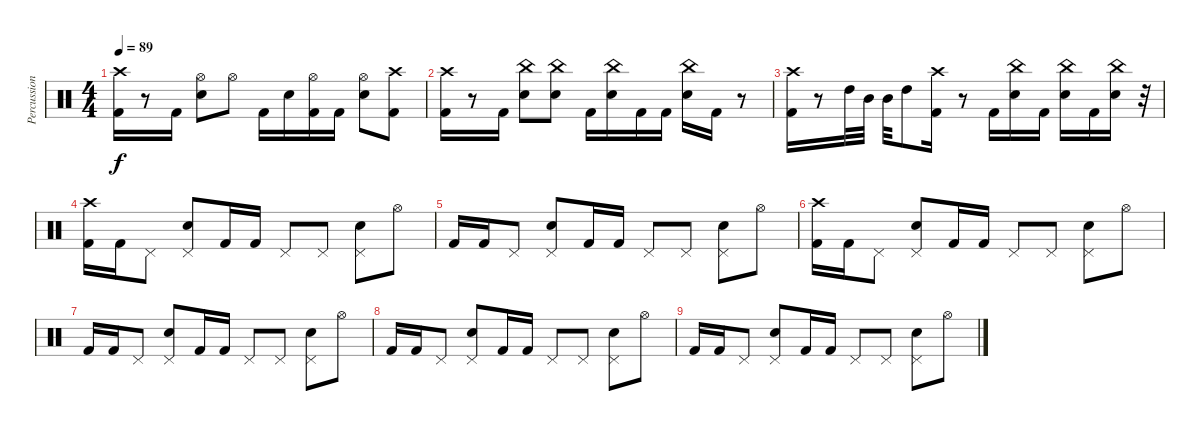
\track ("Percussion" "Percussion") {instrument percussion}
\staff {score}
\articulation defaults
\ts (4 4)
\tempo 89
\clef neutral
\ks c
("Crash high (hit)" "Kick (hit) 2").16{dy f} r.8 "Kick (hit) 2".16 ("Hi-Hat (open)" "Electric Snare (hit)").8 "Hi-Hat (open)".8 "Kick (hit) 2".16 "Electric Snare (hit)".16 ("Hi-Hat (open)" "Kick (hit) 2").16 "Kick (hit) 2".16 ("Hi-Hat (open)" "Electric Snare (hit)").8 ("Crash high (hit)" "Kick (hit) 2").8 |
("Crash high (hit)" "Kick (hit) 2").16 r.8 "Kick (hit) 2".16 ("China (hit)" "Electric Snare (hit)").8 ("China (hit)" "Electric Snare (hit)").8 "Kick (hit) 2".16 ("China (hit)" "Electric Snare (hit)").16 "Kick (hit) 2".16 "Kick (hit) 2".16 ("China (hit)" "Electric Snare (hit)").16 "Kick (hit) 2".16 r.8 |
("Crash high (hit)" "Kick (hit) 2").16 r.8 "High Tom (hit)".32 "Mid Tom (hit)".32 "Mid Tom (hit)".32 "High Tom (hit)".8 ("Crash high (hit)" "Kick (hit) 2").16 r.8 "Kick (hit) 2".16 ("China (hit)" "Electric Snare (hit)").16 "Kick (hit) 2".16 ("China (hit)" "Electric Snare (hit)").16 "Kick (hit) 2".16 ("China (hit)" "Electric Snare (hit)").16 r.32 |
("Crash high (hit)" "Kick (hit) 2").16 "Kick (hit) 2".16 "Pedal Hi-Hat (hit)".8 ("Pedal Hi-Hat (hit)" "Electric Snare (hit)").8 "Kick (hit) 2".16 "Kick (hit) 2".16 "Pedal Hi-Hat (hit)".8 "Pedal Hi-Hat (hit)".8 ("Pedal Hi-Hat (hit)" "Electric Snare (hit)").8 "Hi-Hat (open)".8 |
"Kick (hit) 2".16 "Kick (hit) 2".16 "Pedal Hi-Hat (hit)".8 ("Pedal Hi-Hat (hit)" "Electric Snare (hit)").8 "Kick (hit) 2".16 "Kick (hit) 2".16 "Pedal Hi-Hat (hit)".8 "Pedal Hi-Hat (hit)".8 ("Pedal Hi-Hat (hit)" "Electric Snare (hit)").8 "Hi-Hat (open)".8 |
("Crash high (hit)" "Kick (hit) 2").16 "Kick (hit) 2".16 "Pedal Hi-Hat (hit)".8 ("Pedal Hi-Hat (hit)" "Electric Snare (hit)").8 "Kick (hit) 2".16 "Kick (hit) 2".16 "Pedal Hi-Hat (hit)".8 "Pedal Hi-Hat (hit)".8 ("Pedal Hi-Hat (hit)" "Electric Snare (hit)").8 "Hi-Hat (open)".8 |
"Kick (hit) 2".16 "Kick (hit) 2".16 "Pedal Hi-Hat (hit)".8 ("Pedal Hi-Hat (hit)" "Electric Snare (hit)").8 "Kick (hit) 2".16 "Kick (hit) 2".16 "Pedal Hi-Hat (hit)".8 "Pedal Hi-Hat (hit)".8 ("Pedal Hi-Hat (hit)" "Electric Snare (hit)").8 "Hi-Hat (open)".8 |
"Kick (hit) 2".16 "Kick (hit) 2".16 "Pedal Hi-Hat (hit)".8 ("Pedal Hi-Hat (hit)" "Electric Snare (hit)").8 "Kick (hit) 2".16 "Kick (hit) 2".16 "Pedal Hi-Hat (hit)".8 "Pedal Hi-Hat (hit)".8 ("Pedal Hi-Hat (hit)" "Electric Snare (hit)").8 "Hi-Hat (open)".8 |
"Kick (hit) 2".16 "Kick (hit) 2".16 "Pedal Hi-Hat (hit)".8 ("Pedal Hi-Hat (hit)" "Electric Snare (hit)").8 "Kick (hit) 2".16 "Kick (hit) 2".16 "Pedal Hi-Hat (hit)".8 "Pedal Hi-Hat (hit)".8 ("Pedal Hi-Hat (hit)" "Electric Snare (hit)").8 "Hi-Hat (open)".8
